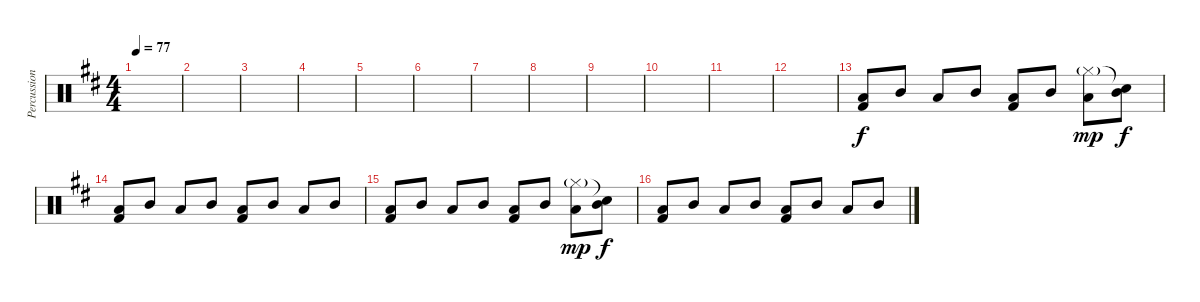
\track ("Percussion" "Percussion") {instrument percussion}
\staff {score}
\articulation defaults
\ts (4 4)
\tempo 77
\clef neutral
\ks d
|
|
|
|
|
|
|
|
|
|
|
|
("Low Tom (hit)" "Kick (hit) 2").8 "Mid Tom (hit)".8 "Low Tom (hit)".8 "Mid Tom (hit)".8 ("Low Tom (hit)" "Kick (hit) 2").8 "Mid Tom (hit)".8 ("Low Tom (hit)" "Hi-Hat (closed)"{g}).8{dy mp} ("Mid Tom (hit)" "Snare (hit)"{t}).8{dy f} |
("Low Tom (hit)" "Kick (hit) 2").8 "Mid Tom (hit)".8 "Low Tom (hit)".8 "Mid Tom (hit)".8 ("Low Tom (hit)" "Kick (hit) 2").8 "Mid Tom (hit)".8 "Low Tom (hit)".8 "Mid Tom (hit)".8 |
("Low Tom (hit)" "Kick (hit) 2").8 "Mid Tom (hit)".8 "Low Tom (hit)".8 "Mid Tom (hit)".8 ("Low Tom (hit)" "Kick (hit) 2").8 "Mid Tom (hit)".8 ("Low Tom (hit)" "Hi-Hat (closed)"{g}).8{dy mp} ("Mid Tom (hit)" "Snare (hit)"{t}).8{dy f} |
("Low Tom (hit)" "Kick (hit) 2").8 "Mid Tom (hit)".8 "Low Tom (hit)".8 "Mid Tom (hit)".8 ("Low Tom (hit)" "Kick (hit) 2").8 "Mid Tom (hit)".8 "Low Tom (hit)".8 "Mid Tom (hit)".8
